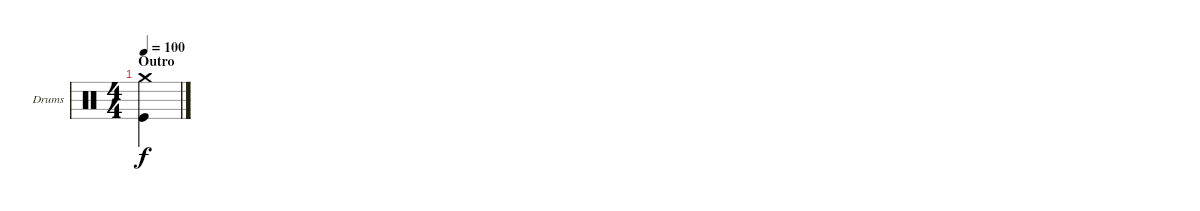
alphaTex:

\defaultSystemsLayout 4
\bracketExtendMode groupsimilarinstruments
\firstSystemTrackNameOrientation horizontal
\otherSystemsTrackNameOrientation horizontal
\track ("Drumkit" "Drums") {instrument percussion}
\staff {score}
\articulation defaults
\ts (4 4)
\section ("" "Outro")
\tempo 100
\clef neutral
\ks c
("Crash medium (hit)" "Kick (hit)").4{dy f}
